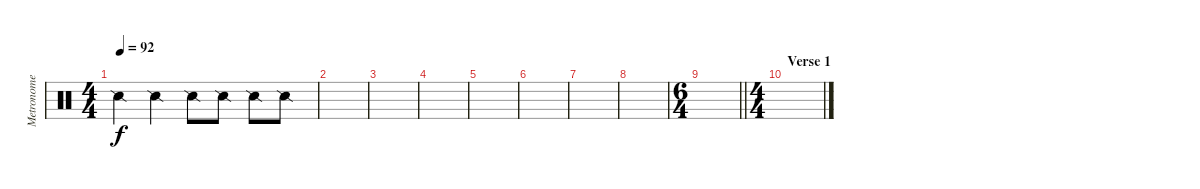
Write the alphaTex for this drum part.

\track ("Metronome" "Metronome") {instrument percussion}
\staff {score}
\articulation defaults
\ts (4 4)
\tempo 92
\clef neutral
\ks c "Snare (side stick) 2".4{dy f} "Snare (side stick) 2".4 "Snare (side stick) 2".8 "Snare (side stick) 2".8 "Snare (side stick) 2".8 "Snare (side stick) 2".8
|
|
|
|
|
|
|
|
\ts (6 4)
\barLineRight lightlight
|
\ts (4 4)
\section ("" "Verse 1")
